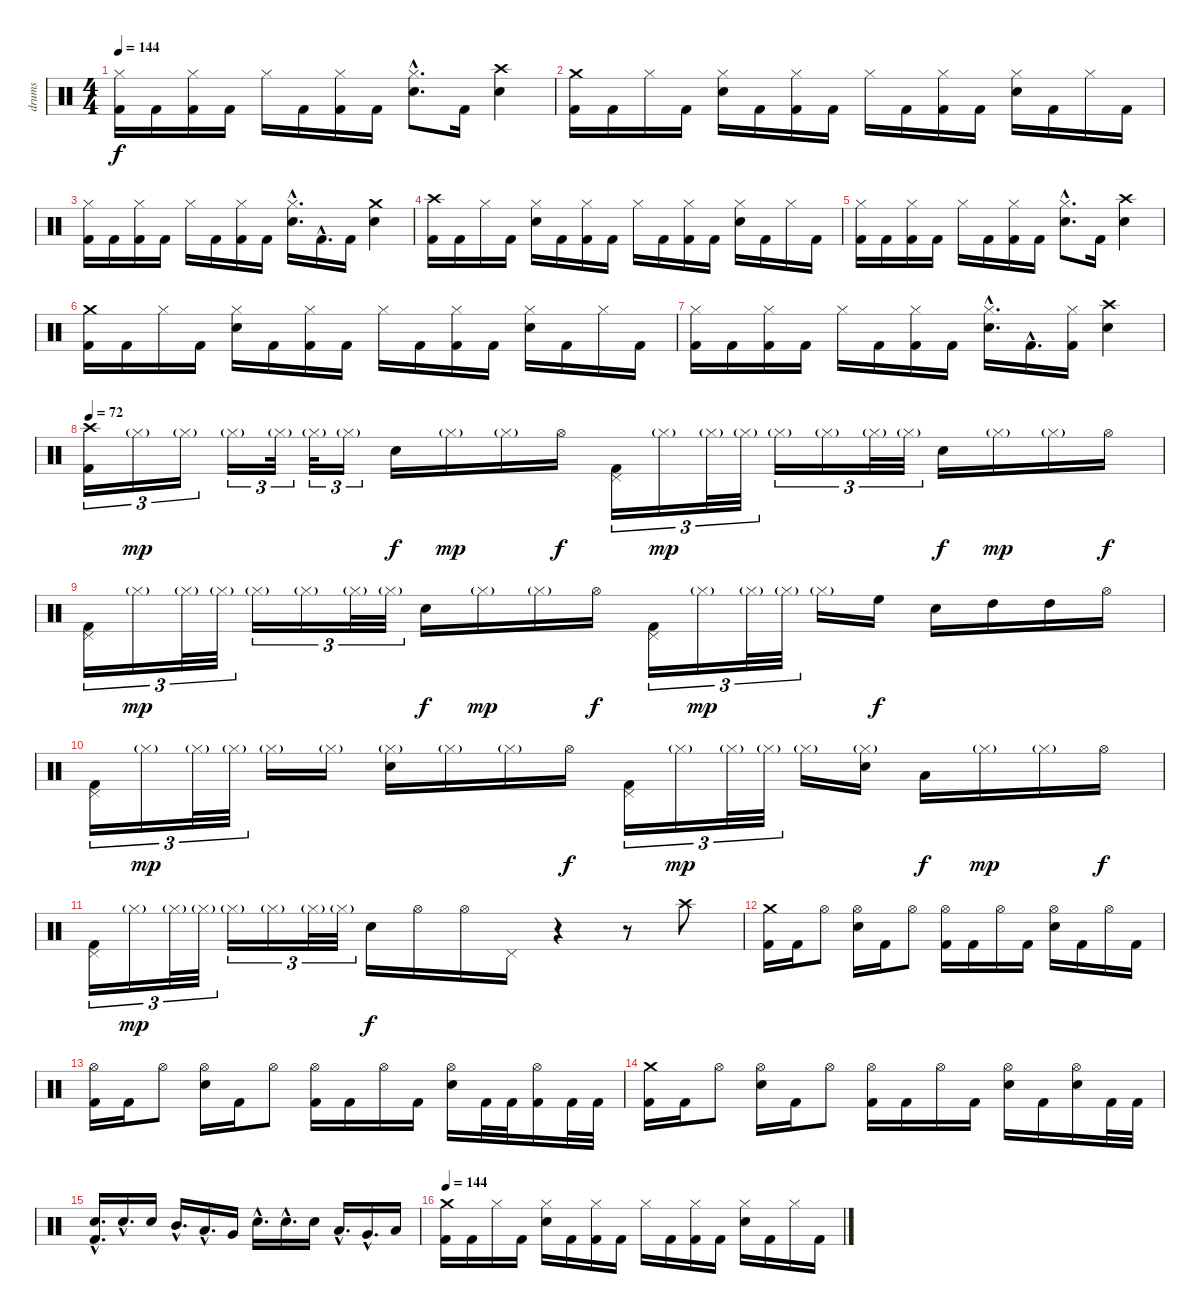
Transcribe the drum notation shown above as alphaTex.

\track ("drums" "drums") {instrument percussion}
\staff {score}
\articulation defaults
\ts (4 4)
\tempo 144
\clef neutral
\ks c
("Hi-Hat (closed)" "Kick (hit) 2").16{dy f} "Kick (hit) 2".16 ("Hi-Hat (closed)" "Kick (hit) 2").16 "Kick (hit) 2".16 "Hi-Hat (closed)".16 "Kick (hit) 2".16 ("Hi-Hat (closed)" "Kick (hit) 2").16 "Kick (hit) 2".16 ("Hi-Hat (closed)"{hac} "Electric Snare (hit)"{hac}).8{d} "Kick (hit) 2".16 ("Crash high (hit)" "Electric Snare (hit)").4 |
("Crash medium (hit)" "Kick (hit) 2").16 "Kick (hit) 2".16 "Hi-Hat (closed)".16 "Kick (hit) 2".16 ("Hi-Hat (closed)" "Electric Snare (hit)").16 "Kick (hit) 2".16 ("Hi-Hat (closed)" "Kick (hit) 2").16 "Kick (hit) 2".16 "Hi-Hat (closed)".16 "Kick (hit) 2".16 ("Hi-Hat (closed)" "Kick (hit) 2").16 "Kick (hit) 2".16 ("Hi-Hat (closed)" "Electric Snare (hit)").16 "Kick (hit) 2".16 "Hi-Hat (closed)".16 "Kick (hit) 2".16 |
("Hi-Hat (closed)" "Kick (hit) 2").16 "Kick (hit) 2".16 ("Hi-Hat (closed)" "Kick (hit) 2").16 "Kick (hit) 2".16 "Hi-Hat (closed)".16 "Kick (hit) 2".16 ("Hi-Hat (closed)" "Kick (hit) 2").16 "Kick (hit) 2".16 ("Hi-Hat (closed)"{hac} "Electric Snare (hit)"{hac}).16{d} "Kick (hit) 2"{hac}.16{d} "Kick (hit) 2".16 ("Crash medium (hit)" "Electric Snare (hit)").4 |
("Crash high (hit)" "Kick (hit) 2").16 "Kick (hit) 2".16 "Hi-Hat (closed)".16 "Kick (hit) 2".16 ("Hi-Hat (closed)" "Electric Snare (hit)").16 "Kick (hit) 2".16 ("Hi-Hat (closed)" "Kick (hit) 2").16 "Kick (hit) 2".16 "Hi-Hat (closed)".16 "Kick (hit) 2".16 ("Hi-Hat (closed)" "Kick (hit) 2").16 "Kick (hit) 2".16 ("Hi-Hat (closed)" "Electric Snare (hit)").16 "Kick (hit) 2".16 "Hi-Hat (closed)".16 "Kick (hit) 2".16 |
("Hi-Hat (closed)" "Kick (hit) 2").16 "Kick (hit) 2".16 ("Hi-Hat (closed)" "Kick (hit) 2").16 "Kick (hit) 2".16 "Hi-Hat (closed)".16 "Kick (hit) 2".16 ("Hi-Hat (closed)" "Kick (hit) 2").16 "Kick (hit) 2".16 ("Hi-Hat (closed)"{hac} "Electric Snare (hit)"{hac}).8{d} "Kick (hit) 2".16 ("Crash high (hit)" "Electric Snare (hit)").4 |
("Crash medium (hit)" "Kick (hit) 2").16 "Kick (hit) 2".16 "Hi-Hat (closed)".16 "Kick (hit) 2".16 ("Hi-Hat (closed)" "Electric Snare (hit)").16 "Kick (hit) 2".16 ("Hi-Hat (closed)" "Kick (hit) 2").16 "Kick (hit) 2".16 "Hi-Hat (closed)".16 "Kick (hit) 2".16 ("Hi-Hat (closed)" "Kick (hit) 2").16 "Kick (hit) 2".16 ("Hi-Hat (closed)" "Electric Snare (hit)").16 "Kick (hit) 2".16 "Hi-Hat (closed)".16 "Kick (hit) 2".16 |
("Hi-Hat (closed)" "Kick (hit) 2").16 "Kick (hit) 2".16 ("Hi-Hat (closed)" "Kick (hit) 2").16 "Kick (hit) 2".16 "Hi-Hat (closed)".16 "Kick (hit) 2".16 ("Hi-Hat (closed)" "Kick (hit) 2").16 "Kick (hit) 2".16 ("Hi-Hat (closed)"{hac} "Electric Snare (hit)"{hac}).16{d} "Kick (hit) 2"{hac}.16{d} ("Hi-Hat (closed)" "Kick (hit) 2").16 ("Crash high (hit)" "Electric Snare (hit)").4 |
\tempo 72
("Crash high (hit)" "Kick (hit) 2").16{tu (3 2)} "Hi-Hat (closed)"{g}.16{tu (3 2) dy mp} "Hi-Hat (closed)"{g}.16{tu (3 2)} "Hi-Hat (closed)"{g}.16{tu (3 2)} "Hi-Hat (closed)"{g}.32{tu (3 2)} "Hi-Hat (closed)"{g}.32{tu (3 2)} "Hi-Hat (closed)"{g}.16{tu (3 2)} "Electric Snare (hit)".16{dy f} "Hi-Hat (closed)"{g}.16{dy mp} "Hi-Hat (closed)"{g}.16 "Hi-Hat (open)".16{dy f} ("Pedal Hi-Hat (hit)" "Kick (hit) 2").16{tu (3 2)} "Hi-Hat (closed)"{g}.16{tu (3 2) dy mp} "Hi-Hat (closed)"{g}.32{tu (3 2)} "Hi-Hat (closed)"{g}.32{tu (3 2)} "Hi-Hat (closed)"{g}.16{tu (3 2)} "Hi-Hat (closed)"{g}.16{tu (3 2)} "Hi-Hat (closed)"{g}.32{tu (3 2)} "Hi-Hat (closed)"{g}.32{tu (3 2)} "Electric Snare (hit)".16{dy f} "Hi-Hat (closed)"{g}.16{dy mp} "Hi-Hat (closed)"{g}.16 "Hi-Hat (open)".16{dy f} |
("Pedal Hi-Hat (hit)" "Kick (hit) 2").16{tu (3 2)} "Hi-Hat (closed)"{g}.16{tu (3 2) dy mp} "Hi-Hat (closed)"{g}.32{tu (3 2)} "Hi-Hat (closed)"{g}.32{tu (3 2)} "Hi-Hat (closed)"{g}.16{tu (3 2)} "Hi-Hat (closed)"{g}.16{tu (3 2)} "Hi-Hat (closed)"{g}.32{tu (3 2)} "Hi-Hat (closed)"{g}.32{tu (3 2)} "Electric Snare (hit)".16{dy f} "Hi-Hat (closed)"{g}.16{dy mp} "Hi-Hat (closed)"{g}.16 "Hi-Hat (open)".16{dy f} ("Pedal Hi-Hat (hit)" "Kick (hit) 2").16{tu (3 2)} "Hi-Hat (closed)"{g}.16{tu (3 2) dy mp} "Hi-Hat (closed)"{g}.32{tu (3 2)} "Hi-Hat (closed)"{g}.32{tu (3 2)} "Hi-Hat (closed)"{g}.16 "High Floor Tom (hit)".16{dy f} "Electric Snare (hit)".16 "High Tom (hit)".16 "High Tom (hit)".16 "Hi-Hat (open)".16 |
("Pedal Hi-Hat (hit)" "Kick (hit) 2").16{tu (3 2)} "Hi-Hat (closed)"{g}.16{tu (3 2) dy mp} "Hi-Hat (closed)"{g}.32{tu (3 2)} "Hi-Hat (closed)"{g}.32{tu (3 2)} "Hi-Hat (closed)"{g}.16 "Hi-Hat (closed)"{g}.16 ("Hi-Hat (closed)"{g} "Electric Snare (hit)").16 "Hi-Hat (closed)"{g}.16 "Hi-Hat (closed)"{g}.16 "Hi-Hat (open)".16{dy f} ("Pedal Hi-Hat (hit)" "Kick (hit) 2").16{tu (3 2)} "Hi-Hat (closed)"{g}.16{tu (3 2) dy mp} "Hi-Hat (closed)"{g}.32{tu (3 2)} "Hi-Hat (closed)"{g}.32{tu (3 2)} "Hi-Hat (closed)"{g}.16 ("Hi-Hat (closed)"{g} "Electric Snare (hit)").16 "Low Floor Tom (hit)".16{dy f} "Hi-Hat (closed)"{g}.16{dy mp} "Hi-Hat (closed)"{g}.16 "Hi-Hat (open)".16{dy f} |
("Pedal Hi-Hat (hit)" "Kick (hit) 2").16{tu (3 2)} "Hi-Hat (closed)"{g}.16{tu (3 2) dy mp} "Hi-Hat (closed)"{g}.32{tu (3 2)} "Hi-Hat (closed)"{g}.32{tu (3 2)} "Hi-Hat (closed)"{g}.16{tu (3 2)} "Hi-Hat (closed)"{g}.16{tu (3 2)} "Hi-Hat (closed)"{g}.32{tu (3 2)} "Hi-Hat (closed)"{g}.32{tu (3 2)} "Electric Snare (hit)".16{dy f} "Hi-Hat (open)".16 "Hi-Hat (open)".16 "Pedal Hi-Hat (hit)".16 r.4 r.8 "Crash high (hit)".8 |
("Crash medium (hit)" "Kick (hit) 2").16 "Kick (hit) 2".16 "Hi-Hat (open)".8 ("Hi-Hat (open)" "Electric Snare (hit)").16 "Kick (hit) 2".16 "Hi-Hat (open)".8 ("Hi-Hat (open)" "Kick (hit) 2").16 "Kick (hit) 2".16 "Hi-Hat (open)".16 "Kick (hit) 2".16 ("Hi-Hat (open)" "Electric Snare (hit)").16 "Kick (hit) 2".16 "Hi-Hat (open)".16 "Kick (hit) 2".16 |
("Hi-Hat (open)" "Kick (hit) 2").16 "Kick (hit) 2".16 "Hi-Hat (open)".8 ("Hi-Hat (open)" "Electric Snare (hit)").16 "Kick (hit) 2".16 "Hi-Hat (open)".8 ("Hi-Hat (open)" "Kick (hit) 2").16 "Kick (hit) 2".16 "Hi-Hat (open)".16 "Kick (hit) 2".16 ("Hi-Hat (open)" "Electric Snare (hit)").16 "Kick (hit) 2".32 "Kick (hit) 2".32 ("Hi-Hat (open)" "Kick (hit) 2").16 "Kick (hit) 2".32 "Kick (hit) 2".32 |
("Crash medium (hit)" "Kick (hit) 2").16 "Kick (hit) 2".16 "Hi-Hat (open)".8 ("Hi-Hat (open)" "Electric Snare (hit)").16 "Kick (hit) 2".16 "Hi-Hat (open)".8 ("Hi-Hat (open)" "Kick (hit) 2").16 "Kick (hit) 2".16 "Hi-Hat (open)".16 "Kick (hit) 2".16 ("Hi-Hat (open)" "Electric Snare (hit)").16 "Kick (hit) 2".16 ("Hi-Hat (open)" "Electric Snare (hit)").16 "Kick (hit) 2".32 "Kick (hit) 2".32 |
("Electric Snare (hit)"{hac} "Kick (hit) 2"{hac}).16{d} "Electric Snare (hit)"{hac}.16{d} "Electric Snare (hit)".16 "Mid Tom (hit)"{hac}.16{d} "Low Tom (hit)"{hac}.16{d} "Very Low Tom (hit)".16 "Electric Snare (hit)"{hac}.16{d} "Electric Snare (hit)"{hac}.16{d} "Electric Snare (hit)".16 "Low Tom (hit)"{hac}.16{d} "Very Low Tom (hit)"{hac}.16{d} "Low Floor Tom (hit)".16 |
\tempo 144
("Crash medium (hit)" "Kick (hit) 2").16 "Kick (hit) 2".16 "Hi-Hat (closed)".16 "Kick (hit) 2".16 ("Hi-Hat (closed)" "Electric Snare (hit)").16 "Kick (hit) 2".16 ("Hi-Hat (closed)" "Kick (hit) 2").16 "Kick (hit) 2".16 "Hi-Hat (closed)".16 "Kick (hit) 2".16 ("Hi-Hat (closed)" "Kick (hit) 2").16 "Kick (hit) 2".16 ("Hi-Hat (closed)" "Electric Snare (hit)").16 "Kick (hit) 2".16 "Hi-Hat (closed)".16 "Kick (hit) 2".16
